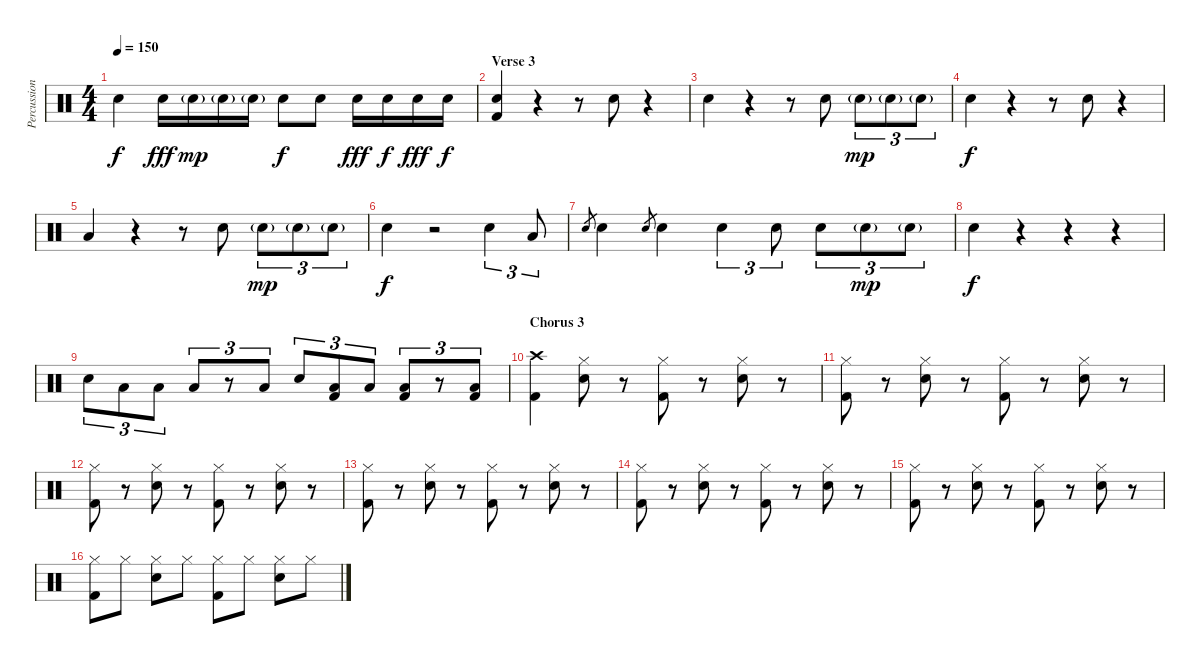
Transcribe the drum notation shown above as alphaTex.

\track ("Percussions" "Percussion") {instrument percussion}
\staff {score}
\articulation defaults
\ts (4 4)
\tempo 150
\clef neutral
\ks c "Snare (hit) 2".4{dy f} "Snare (hit) 2".16{dy fff} "Snare (hit) 2"{g}.16{dy mp} "Snare (hit) 2"{g}.16 "Snare (hit) 2"{g}.16 "Snare (hit) 2".8{dy f} "Snare (hit) 2".8 "Snare (hit) 2".16{dy fff} "Snare (hit) 2".16{dy f} "Snare (hit) 2".16{dy fff} "Snare (hit) 2".16{dy f}
|
\section ("" "Verse 3")
("Snare (hit) 2" "Kick (hit) 2").4 r.4 r.8 "Snare (hit) 2".8 r.4 |
"Snare (hit) 2".4 r.4 r.8 "Snare (hit) 2".8 "Snare (hit) 2"{g}.8{tu (3 2) dy mp} "Snare (hit) 2"{g}.8{tu (3 2)} "Snare (hit) 2"{g}.8{tu (3 2)} |
"Snare (hit) 2".4{dy f} r.4 r.8 "Snare (hit) 2".8 r.4 |
"Low Tom (hit)".4 r.4 r.8 "Snare (hit) 2".8 "Snare (hit) 2"{g}.8{tu (3 2) dy mp} "Snare (hit) 2"{g}.8{tu (3 2)} "Snare (hit) 2"{g}.8{tu (3 2)} |
"Snare (hit) 2".4{dy f} r.2 "Snare (hit) 2".4{tu (3 2)} "Low Tom (hit)".8{tu (3 2)} |
"Snare (hit) 2".8{gr} "Snare (hit) 2".4 "Snare (hit) 2".8{gr} "Snare (hit) 2".4 "Snare (hit) 2".4{tu (3 2)} "Snare (hit) 2".8{tu (3 2)} "Snare (hit) 2".8{tu (3 2)} "Snare (hit) 2"{g}.8{tu (3 2) dy mp} "Snare (hit) 2"{g}.8{tu (3 2)} |
"Snare (hit) 2".4{dy f} r.4 r.4 r.4 |
"Snare (hit) 2".8{tu (3 2)} "Low Tom (hit)".8{tu (3 2)} "Low Tom (hit)".8{tu (3 2)} "Low Tom (hit)".8{tu (3 2)} r.8{tu (3 2)} "Low Tom (hit)".8{tu (3 2)} "Snare (hit) 2".8{tu (3 2)} ("Low Tom (hit)" "Kick (hit) 2").8{tu (3 2)} "Low Tom (hit)".8{tu (3 2)} ("Low Tom (hit)" "Kick (hit) 2").8{tu (3 2)} r.8{tu (3 2)} ("Low Tom (hit)" "Kick (hit) 2").8{tu (3 2)} |
\section ("" "Chorus 3")
("Crash high (hit)" "Kick (hit) 2").4 ("Hi-Hat (closed)" "Snare (hit) 2").8 r.8 ("Hi-Hat (closed)" "Kick (hit) 2").8 r.8 ("Hi-Hat (closed)" "Snare (hit) 2").8 r.8 |
("Hi-Hat (closed)" "Kick (hit) 2").8 r.8 ("Hi-Hat (closed)" "Snare (hit) 2").8 r.8 ("Hi-Hat (closed)" "Kick (hit) 2").8 r.8 ("Hi-Hat (closed)" "Snare (hit) 2").8 r.8 |
("Hi-Hat (closed)" "Kick (hit) 2").8 r.8 ("Hi-Hat (closed)" "Snare (hit) 2").8 r.8 ("Hi-Hat (closed)" "Kick (hit) 2").8 r.8 ("Hi-Hat (closed)" "Snare (hit) 2").8 r.8 |
("Hi-Hat (closed)" "Kick (hit) 2").8 r.8 ("Hi-Hat (closed)" "Snare (hit) 2").8 r.8 ("Hi-Hat (closed)" "Kick (hit) 2").8 r.8 ("Hi-Hat (closed)" "Snare (hit) 2").8 r.8 |
("Hi-Hat (closed)" "Kick (hit) 2").8 r.8 ("Hi-Hat (closed)" "Snare (hit) 2").8 r.8 ("Hi-Hat (closed)" "Kick (hit) 2").8 r.8 ("Hi-Hat (closed)" "Snare (hit) 2").8 r.8 |
("Hi-Hat (closed)" "Kick (hit) 2").8 r.8 ("Hi-Hat (closed)" "Snare (hit) 2").8 r.8 ("Hi-Hat (closed)" "Kick (hit) 2").8 r.8 ("Hi-Hat (closed)" "Snare (hit) 2").8 r.8 |
("Hi-Hat (closed)" "Kick (hit) 2").8 "Hi-Hat (closed)".8 ("Hi-Hat (closed)" "Snare (hit) 2").8 "Hi-Hat (closed)".8 ("Hi-Hat (closed)" "Kick (hit) 2").8 "Hi-Hat (closed)".8 ("Hi-Hat (closed)" "Snare (hit) 2").8 "Hi-Hat (closed)".8
